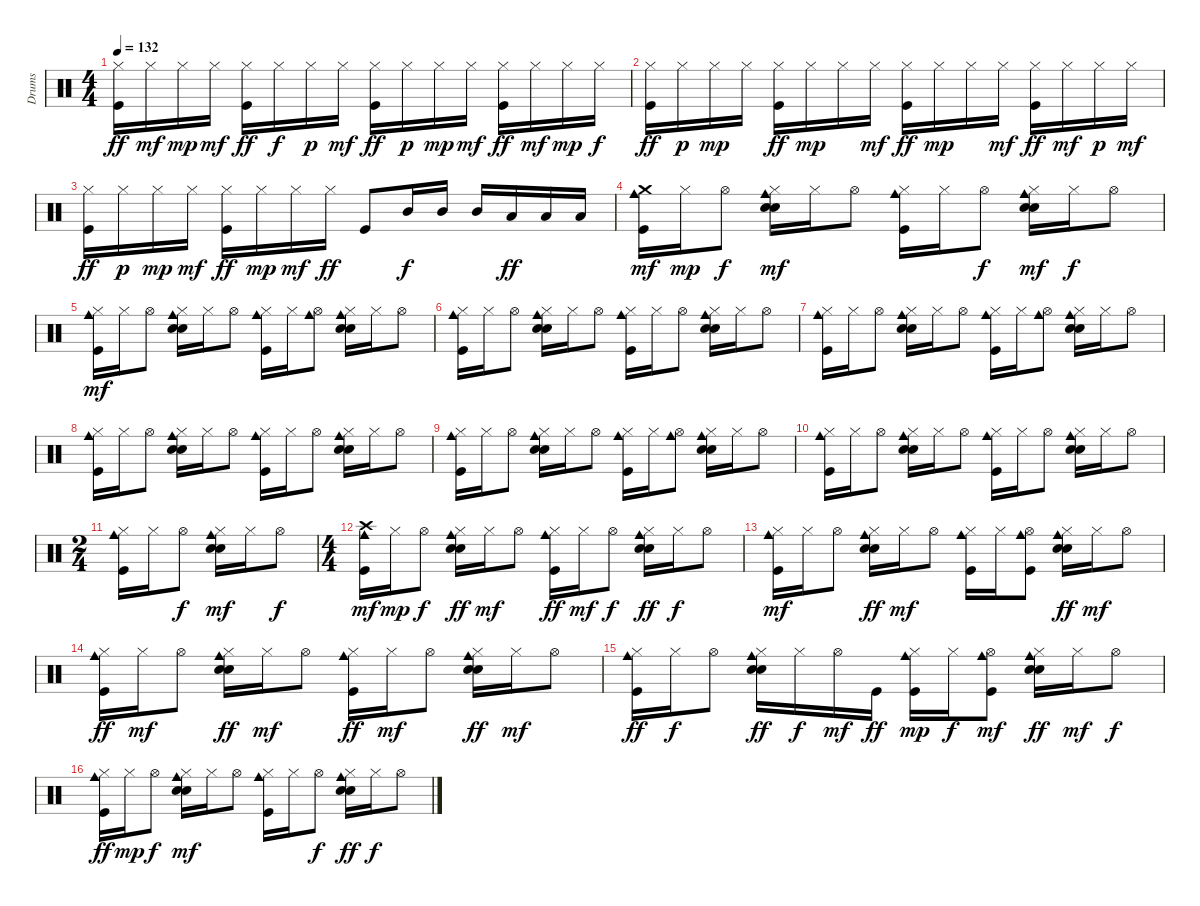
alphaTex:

\track ("Drums" "Drums") {instrument percussion}
\staff {score}
\articulation defaults
\ts (4 4)
\tempo 132
\clef neutral
\ks c
("Hi-Hat (closed)" "Kick (hit)").16{dy ff} "Hi-Hat (closed)".16{dy mf} "Hi-Hat (closed)".16{dy mp} "Hi-Hat (closed)".16{dy mf} ("Hi-Hat (closed)" "Kick (hit)").16{dy ff} "Hi-Hat (closed)".16{dy f} "Hi-Hat (closed)".16{dy p} "Hi-Hat (closed)".16{dy mf} ("Hi-Hat (closed)" "Kick (hit)").16{dy ff} "Hi-Hat (closed)".16{dy p} "Hi-Hat (closed)".16{dy mp} "Hi-Hat (closed)".16{dy mf} ("Hi-Hat (closed)" "Kick (hit)").16{dy ff} "Hi-Hat (closed)".16{dy mf} "Hi-Hat (closed)".16{dy mp} "Hi-Hat (closed)".16{dy f} |
("Hi-Hat (closed)" "Kick (hit)").16{dy ff} "Hi-Hat (closed)".16{dy p} "Hi-Hat (closed)".16{dy mp} "Hi-Hat (closed)".16 ("Hi-Hat (closed)" "Kick (hit)").16{dy ff} "Hi-Hat (closed)".16{dy mp} "Hi-Hat (closed)".16 "Hi-Hat (closed)".16{dy mf} ("Hi-Hat (closed)" "Kick (hit)").16{dy ff} "Hi-Hat (closed)".16{dy mp} "Hi-Hat (closed)".16 "Hi-Hat (closed)".16{dy mf} ("Hi-Hat (closed)" "Kick (hit)").16{dy ff} "Hi-Hat (closed)".16{dy mf} "Hi-Hat (closed)".16{dy p} "Hi-Hat (closed)".16{dy mf} |
("Hi-Hat (closed)" "Kick (hit)").16{dy ff} "Hi-Hat (closed)".16{dy p} "Hi-Hat (closed)".16{dy mp} "Hi-Hat (closed)".16{dy mf} ("Hi-Hat (closed)" "Kick (hit)").16{dy ff} "Hi-Hat (closed)".16{dy mp} "Hi-Hat (closed)".16{dy mf} "Hi-Hat (closed)".16{dy ff} "Kick (hit)".8 "Mid Tom (hit)".16{dy f} "Mid Tom (hit)".16 "Mid Tom (hit)".16 "Low Tom (hit)".16{dy ff} "Low Tom (hit)".16 "Low Floor Tom (hit)".16 |
("Kick (hit)" "Cowbell medium (hit)" "Crash medium (hit)").16{dy mf} "Hi-Hat (closed)".16{dy mp} "Hi-Hat (open)".8{dy f} ("Hi-Hat (closed)" "Electric Snare (hit)" "Snare (hit) 2" "Cowbell medium (hit)").16{dy mf} "Hi-Hat (closed)".16 "Hi-Hat (open)".8 ("Hi-Hat (closed)" "Kick (hit)" "Cowbell medium (hit)").16 "Hi-Hat (closed)".16 "Hi-Hat (open)".8{dy f} ("Hi-Hat (closed)" "Electric Snare (hit)" "Snare (hit) 2" "Cowbell medium (hit)").16{dy mf} "Hi-Hat (closed)".16{dy f} "Hi-Hat (open)".8 |
("Hi-Hat (closed)" "Kick (hit)" "Cowbell medium (hit)").16{dy mf} "Hi-Hat (closed)".16 "Hi-Hat (open)".8 ("Hi-Hat (closed)" "Electric Snare (hit)" "Snare (hit) 2" "Cowbell medium (hit)").16 "Hi-Hat (closed)".16 "Hi-Hat (open)".8 ("Hi-Hat (closed)" "Kick (hit)" "Cowbell medium (hit)").16 "Hi-Hat (closed)".16 ("Hi-Hat (open)" "Cowbell medium (hit)").8 ("Hi-Hat (closed)" "Electric Snare (hit)" "Snare (hit) 2" "Cowbell medium (hit)").16 "Hi-Hat (closed)".16 "Hi-Hat (open)".8 |
("Hi-Hat (closed)" "Kick (hit)" "Cowbell medium (hit)").16 "Hi-Hat (closed)".16 "Hi-Hat (open)".8 ("Hi-Hat (closed)" "Electric Snare (hit)" "Snare (hit) 2" "Cowbell medium (hit)").16 "Hi-Hat (closed)".16 "Hi-Hat (open)".8 ("Hi-Hat (closed)" "Kick (hit)" "Cowbell medium (hit)").16 "Hi-Hat (closed)".16 "Hi-Hat (open)".8 ("Hi-Hat (closed)" "Electric Snare (hit)" "Snare (hit) 2" "Cowbell medium (hit)").16 "Hi-Hat (closed)".16 "Hi-Hat (open)".8 |
("Hi-Hat (closed)" "Kick (hit)" "Cowbell medium (hit)").16 "Hi-Hat (closed)".16 "Hi-Hat (open)".8 ("Hi-Hat (closed)" "Electric Snare (hit)" "Snare (hit) 2" "Cowbell medium (hit)").16 "Hi-Hat (closed)".16 "Hi-Hat (open)".8 ("Hi-Hat (closed)" "Kick (hit)" "Cowbell medium (hit)").16 "Hi-Hat (closed)".16 ("Hi-Hat (open)" "Cowbell medium (hit)").8 ("Hi-Hat (closed)" "Electric Snare (hit)" "Snare (hit) 2" "Cowbell medium (hit)").16 "Hi-Hat (closed)".16 "Hi-Hat (open)".8 |
("Hi-Hat (closed)" "Kick (hit)" "Cowbell medium (hit)").16 "Hi-Hat (closed)".16 "Hi-Hat (open)".8 ("Hi-Hat (closed)" "Electric Snare (hit)" "Snare (hit) 2" "Cowbell medium (hit)").16 "Hi-Hat (closed)".16 "Hi-Hat (open)".8 ("Hi-Hat (closed)" "Kick (hit)" "Cowbell medium (hit)").16 "Hi-Hat (closed)".16 "Hi-Hat (open)".8 ("Hi-Hat (closed)" "Electric Snare (hit)" "Snare (hit) 2" "Cowbell medium (hit)").16 "Hi-Hat (closed)".16 "Hi-Hat (open)".8 |
("Hi-Hat (closed)" "Kick (hit)" "Cowbell medium (hit)").16 "Hi-Hat (closed)".16 "Hi-Hat (open)".8 ("Hi-Hat (closed)" "Electric Snare (hit)" "Snare (hit) 2" "Cowbell medium (hit)").16 "Hi-Hat (closed)".16 "Hi-Hat (open)".8 ("Hi-Hat (closed)" "Kick (hit)" "Cowbell medium (hit)").16 "Hi-Hat (closed)".16 ("Hi-Hat (open)" "Cowbell medium (hit)").8 ("Hi-Hat (closed)" "Electric Snare (hit)" "Snare (hit) 2" "Cowbell medium (hit)").16 "Hi-Hat (closed)".16 "Hi-Hat (open)".8 |
("Hi-Hat (closed)" "Kick (hit)" "Cowbell medium (hit)").16 "Hi-Hat (closed)".16 "Hi-Hat (open)".8 ("Hi-Hat (closed)" "Electric Snare (hit)" "Snare (hit) 2" "Cowbell medium (hit)").16 "Hi-Hat (closed)".16 "Hi-Hat (open)".8 ("Hi-Hat (closed)" "Kick (hit)" "Cowbell medium (hit)").16 "Hi-Hat (closed)".16 "Hi-Hat (open)".8 ("Hi-Hat (closed)" "Electric Snare (hit)" "Snare (hit) 2" "Cowbell medium (hit)").16 "Hi-Hat (closed)".16 "Hi-Hat (open)".8 |
\ts (2 4)
("Hi-Hat (closed)" "Kick (hit)" "Cowbell medium (hit)").16 "Hi-Hat (closed)".16 "Hi-Hat (open)".8{dy f} ("Hi-Hat (closed)" "Electric Snare (hit)" "Snare (hit) 2" "Cowbell medium (hit)").16{dy mf} "Hi-Hat (closed)".16 "Hi-Hat (open)".8{dy f} |
\ts (4 4)
("Kick (hit)" "Cowbell medium (hit)" "Crash high (hit)").16{dy mf} "Hi-Hat (closed)".16{dy mp} "Hi-Hat (open)".8{dy f} ("Hi-Hat (closed)" "Electric Snare (hit)" "Snare (hit) 2" "Cowbell medium (hit)").16{dy ff} "Hi-Hat (closed)".16{dy mf} "Hi-Hat (open)".8 ("Hi-Hat (closed)" "Kick (hit)" "Cowbell medium (hit)").16{dy ff} "Hi-Hat (closed)".16{dy mf} "Hi-Hat (open)".8{dy f} ("Hi-Hat (closed)" "Electric Snare (hit)" "Snare (hit) 2" "Cowbell medium (hit)").16{dy ff} "Hi-Hat (closed)".16{dy f} "Hi-Hat (open)".8 |
("Hi-Hat (closed)" "Kick (hit)" "Cowbell medium (hit)").16{dy mf} "Hi-Hat (closed)".16 "Hi-Hat (open)".8 ("Hi-Hat (closed)" "Electric Snare (hit)" "Snare (hit) 2" "Cowbell medium (hit)").16{dy ff} "Hi-Hat (closed)".16{dy mf} "Hi-Hat (open)".8 ("Hi-Hat (closed)" "Kick (hit)" "Cowbell medium (hit)").16 "Hi-Hat (closed)".16 ("Hi-Hat (open)" "Kick (hit)" "Cowbell medium (hit)").8 ("Hi-Hat (closed)" "Electric Snare (hit)" "Snare (hit) 2" "Cowbell medium (hit)").16{dy ff} "Hi-Hat (closed)".16{dy mf} "Hi-Hat (open)".8 |
("Hi-Hat (closed)" "Kick (hit)" "Cowbell medium (hit)").16{dy ff} "Hi-Hat (closed)".16{dy mf} "Hi-Hat (open)".8 ("Hi-Hat (closed)" "Electric Snare (hit)" "Snare (hit) 2" "Cowbell medium (hit)").16{dy ff} "Hi-Hat (closed)".16{dy mf} "Hi-Hat (open)".8 ("Hi-Hat (closed)" "Kick (hit)" "Cowbell medium (hit)").16{dy ff} "Hi-Hat (closed)".16{dy mf} "Hi-Hat (open)".8 ("Hi-Hat (closed)" "Electric Snare (hit)" "Snare (hit) 2" "Cowbell medium (hit)").16{dy ff} "Hi-Hat (closed)".16{dy mf} "Hi-Hat (open)".8 |
("Hi-Hat (closed)" "Kick (hit)" "Cowbell medium (hit)").16{dy ff} "Hi-Hat (closed)".16{dy f} "Hi-Hat (open)".8 ("Hi-Hat (closed)" "Electric Snare (hit)" "Snare (hit) 2" "Cowbell medium (hit)").16{dy ff} "Hi-Hat (closed)".16{dy f} "Hi-Hat (open)".16{dy mf} "Kick (hit)".16{dy ff} ("Hi-Hat (closed)" "Kick (hit)" "Cowbell medium (hit)").16{dy mp} "Hi-Hat (closed)".16{dy f} ("Hi-Hat (open)" "Kick (hit)" "Cowbell medium (hit)").8{dy mf} ("Hi-Hat (closed)" "Electric Snare (hit)" "Snare (hit) 2" "Cowbell medium (hit)").16{dy ff} "Hi-Hat (closed)".16{dy mf} "Hi-Hat (open)".8{dy f} |
("Hi-Hat (closed)" "Kick (hit)" "Cowbell medium (hit)").16{dy ff} "Hi-Hat (closed)".16{dy mp} "Hi-Hat (open)".8{dy f} ("Hi-Hat (closed)" "Electric Snare (hit)" "Snare (hit) 2" "Cowbell medium (hit)").16{dy mf} "Hi-Hat (closed)".16 "Hi-Hat (open)".8 ("Hi-Hat (closed)" "Kick (hit)" "Cowbell medium (hit)").16 "Hi-Hat (closed)".16 "Hi-Hat (open)".8{dy f} ("Hi-Hat (closed)" "Electric Snare (hit)" "Snare (hit) 2" "Cowbell medium (hit)").16{dy ff} "Hi-Hat (closed)".16{dy f} "Hi-Hat (open)".8
